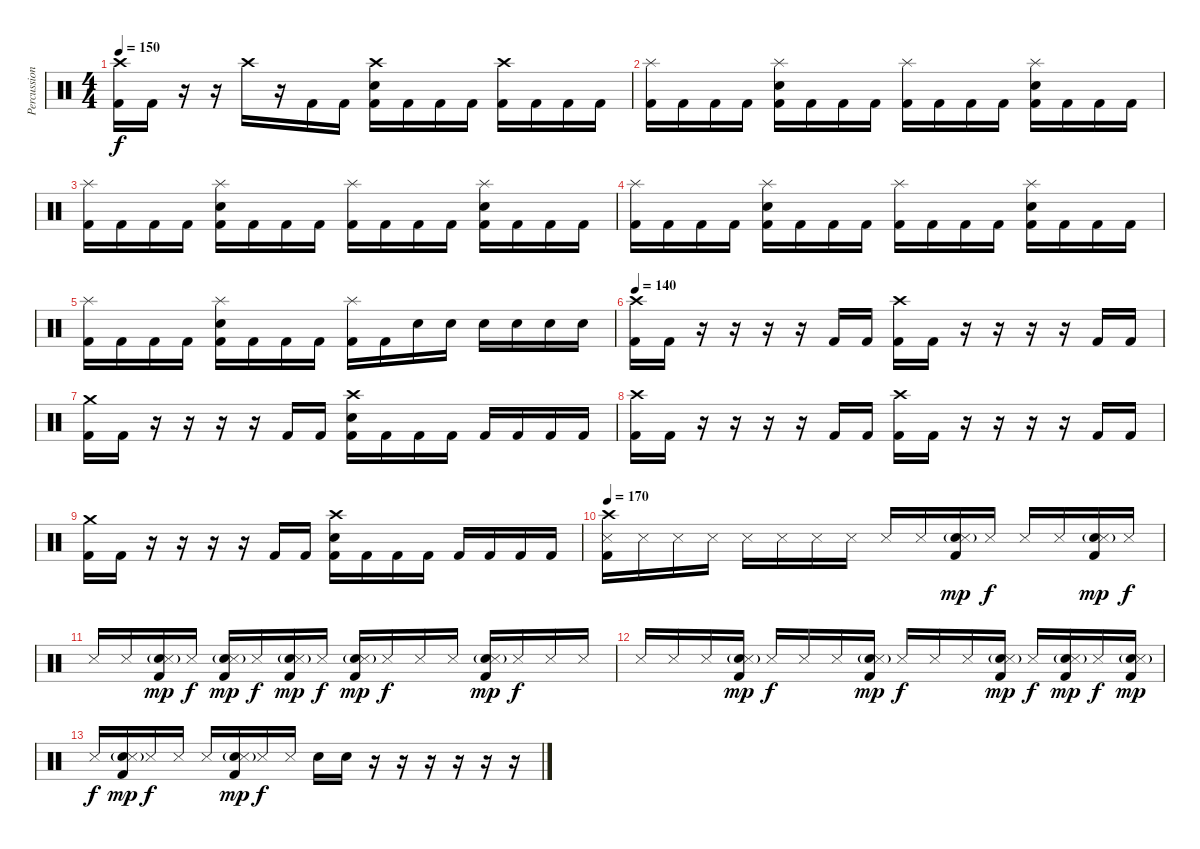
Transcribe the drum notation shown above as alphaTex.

\track ("Percussion" "Percussion") {instrument percussion}
\staff {score}
\articulation defaults
\ts (4 4)
\tempo 150
\clef neutral
\ks c
("Crash high (hit)" "Kick (hit) 2").16{dy f} "Kick (hit) 2".16 r.16 r.16 "Crash high (hit)".16 r.16 "Kick (hit) 2".16 "Kick (hit) 2".16 ("Crash high (hit)" "Electric Snare (hit)" "Kick (hit) 2").16 "Kick (hit) 2".16 "Kick (hit) 2".16 "Kick (hit) 2".16 ("Crash high (hit)" "Kick (hit) 2").16 "Kick (hit) 2".16 "Kick (hit) 2".16 "Kick (hit) 2".16 |
("Splash (hit)" "Kick (hit) 2").16 "Kick (hit) 2".16 "Kick (hit) 2".16 "Kick (hit) 2".16 ("Splash (hit)" "Electric Snare (hit)" "Kick (hit) 2").16 "Kick (hit) 2".16 "Kick (hit) 2".16 "Kick (hit) 2".16 ("Splash (hit)" "Kick (hit) 2").16 "Kick (hit) 2".16 "Kick (hit) 2".16 "Kick (hit) 2".16 ("Splash (hit)" "Electric Snare (hit)" "Kick (hit) 2").16 "Kick (hit) 2".16 "Kick (hit) 2".16 "Kick (hit) 2".16 |
("Splash (hit)" "Kick (hit) 2").16 "Kick (hit) 2".16 "Kick (hit) 2".16 "Kick (hit) 2".16 ("Splash (hit)" "Electric Snare (hit)" "Kick (hit) 2").16 "Kick (hit) 2".16 "Kick (hit) 2".16 "Kick (hit) 2".16 ("Splash (hit)" "Kick (hit) 2").16 "Kick (hit) 2".16 "Kick (hit) 2".16 "Kick (hit) 2".16 ("Splash (hit)" "Electric Snare (hit)" "Kick (hit) 2").16 "Kick (hit) 2".16 "Kick (hit) 2".16 "Kick (hit) 2".16 |
("Splash (hit)" "Kick (hit) 2").16 "Kick (hit) 2".16 "Kick (hit) 2".16 "Kick (hit) 2".16 ("Splash (hit)" "Electric Snare (hit)" "Kick (hit) 2").16 "Kick (hit) 2".16 "Kick (hit) 2".16 "Kick (hit) 2".16 ("Splash (hit)" "Kick (hit) 2").16 "Kick (hit) 2".16 "Kick (hit) 2".16 "Kick (hit) 2".16 ("Splash (hit)" "Electric Snare (hit)" "Kick (hit) 2").16 "Kick (hit) 2".16 "Kick (hit) 2".16 "Kick (hit) 2".16 |
("Splash (hit)" "Kick (hit) 2").16 "Kick (hit) 2".16 "Kick (hit) 2".16 "Kick (hit) 2".16 ("Splash (hit)" "Electric Snare (hit)" "Kick (hit) 2").16 "Kick (hit) 2".16 "Kick (hit) 2".16 "Kick (hit) 2".16 ("Splash (hit)" "Kick (hit) 2").16 "Kick (hit) 2".16 "Electric Snare (hit)".16 "Electric Snare (hit)".16 "Electric Snare (hit)".16 "Electric Snare (hit)".16 "Electric Snare (hit)".16 "Electric Snare (hit)".16 |
\tempo 140
("Crash high (hit)" "Kick (hit) 2").16 "Kick (hit) 2".16 r.16 r.16 r.16 r.16 "Kick (hit) 2".16 "Kick (hit) 2".16 ("Crash high (hit)" "Kick (hit) 2").16 "Kick (hit) 2".16 r.16 r.16 r.16 r.16 "Kick (hit) 2".16 "Kick (hit) 2".16 |
("Crash medium (hit)" "Kick (hit) 2").16 "Kick (hit) 2".16 r.16 r.16 r.16 r.16 "Kick (hit) 2".16 "Kick (hit) 2".16 ("Crash high (hit)" "Electric Snare (hit)" "Kick (hit) 2").16 "Kick (hit) 2".16 "Kick (hit) 2".16 "Kick (hit) 2".16 "Kick (hit) 2".16 "Kick (hit) 2".16 "Kick (hit) 2".16 "Kick (hit) 2".16 |
("Crash high (hit)" "Kick (hit) 2").16 "Kick (hit) 2".16 r.16 r.16 r.16 r.16 "Kick (hit) 2".16 "Kick (hit) 2".16 ("Crash high (hit)" "Kick (hit) 2").16 "Kick (hit) 2".16 r.16 r.16 r.16 r.16 "Kick (hit) 2".16 "Kick (hit) 2".16 |
("Crash medium (hit)" "Kick (hit) 2").16 "Kick (hit) 2".16 r.16 r.16 r.16 r.16 "Kick (hit) 2".16 "Kick (hit) 2".16 ("Crash high (hit)" "Electric Snare (hit)" "Kick (hit) 2").16 "Kick (hit) 2".16 "Kick (hit) 2".16 "Kick (hit) 2".16 "Kick (hit) 2".16 "Kick (hit) 2".16 "Kick (hit) 2".16 "Kick (hit) 2".16 |
\tempo 170
("Crash high (hit)" "Snare (side stick) 3" "Kick (hit) 2").16 "Snare (side stick) 3".16 "Snare (side stick) 3".16 "Snare (side stick) 3".16 "Snare (side stick) 3".16 "Snare (side stick) 3".16 "Snare (side stick) 3".16 "Snare (side stick) 3".16 "Snare (side stick) 3".16 "Snare (side stick) 3".16 ("Snare (hit) 2"{g} "Snare (side stick) 3" "Kick (hit) 2").16{dy mp} "Snare (side stick) 3".16{dy f} "Snare (side stick) 3".16 "Snare (side stick) 3".16 ("Snare (hit) 2"{g} "Snare (side stick) 3" "Kick (hit) 2").16{dy mp} "Snare (side stick) 3".16{dy f} |
"Snare (side stick) 3".16 "Snare (side stick) 3".16 ("Snare (hit) 2"{g} "Snare (side stick) 3" "Kick (hit) 2").16{dy mp} "Snare (side stick) 3".16{dy f} ("Snare (hit) 2"{g} "Snare (side stick) 3" "Kick (hit) 2").16{dy mp} "Snare (side stick) 3".16{dy f} ("Snare (hit) 2"{g} "Snare (side stick) 3" "Kick (hit) 2").16{dy mp} "Snare (side stick) 3".16{dy f} ("Snare (hit) 2"{g} "Snare (side stick) 3" "Kick (hit) 2").16{dy mp} "Snare (side stick) 3".16{dy f} "Snare (side stick) 3".16 "Snare (side stick) 3".16 ("Snare (hit) 2"{g} "Snare (side stick) 3" "Kick (hit) 2").16{dy mp} "Snare (side stick) 3".16{dy f} "Snare (side stick) 3".16 "Snare (side stick) 3".16 |
"Snare (side stick) 3".16 "Snare (side stick) 3".16 "Snare (side stick) 3".16 ("Snare (hit) 2"{g} "Snare (side stick) 3" "Kick (hit) 2").16{dy mp} "Snare (side stick) 3".16{dy f} "Snare (side stick) 3".16 "Snare (side stick) 3".16 ("Snare (hit) 2"{g} "Snare (side stick) 3" "Kick (hit) 2").16{dy mp} "Snare (side stick) 3".16{dy f} "Snare (side stick) 3".16 "Snare (side stick) 3".16 ("Snare (hit) 2"{g} "Snare (side stick) 3" "Kick (hit) 2").16{dy mp} "Snare (side stick) 3".16{dy f} ("Snare (hit) 2"{g} "Snare (side stick) 3" "Kick (hit) 2").16{dy mp} "Snare (side stick) 3".16{dy f} ("Snare (hit) 2"{g} "Snare (side stick) 3" "Kick (hit) 2").16{dy mp} |
"Snare (side stick) 3".16{dy f} ("Snare (hit) 2"{g} "Snare (side stick) 3" "Kick (hit) 2").16{dy mp} "Snare (side stick) 3".16{dy f} "Snare (side stick) 3".16 "Snare (side stick) 3".16 ("Snare (hit) 2"{g} "Snare (side stick) 3" "Kick (hit) 2").16{dy mp} "Snare (side stick) 3".16{dy f} "Snare (side stick) 3".16 "Electric Snare (hit)".16 "Electric Snare (hit)".16 r.16 r.16 r.16 r.16 r.16 r.16
